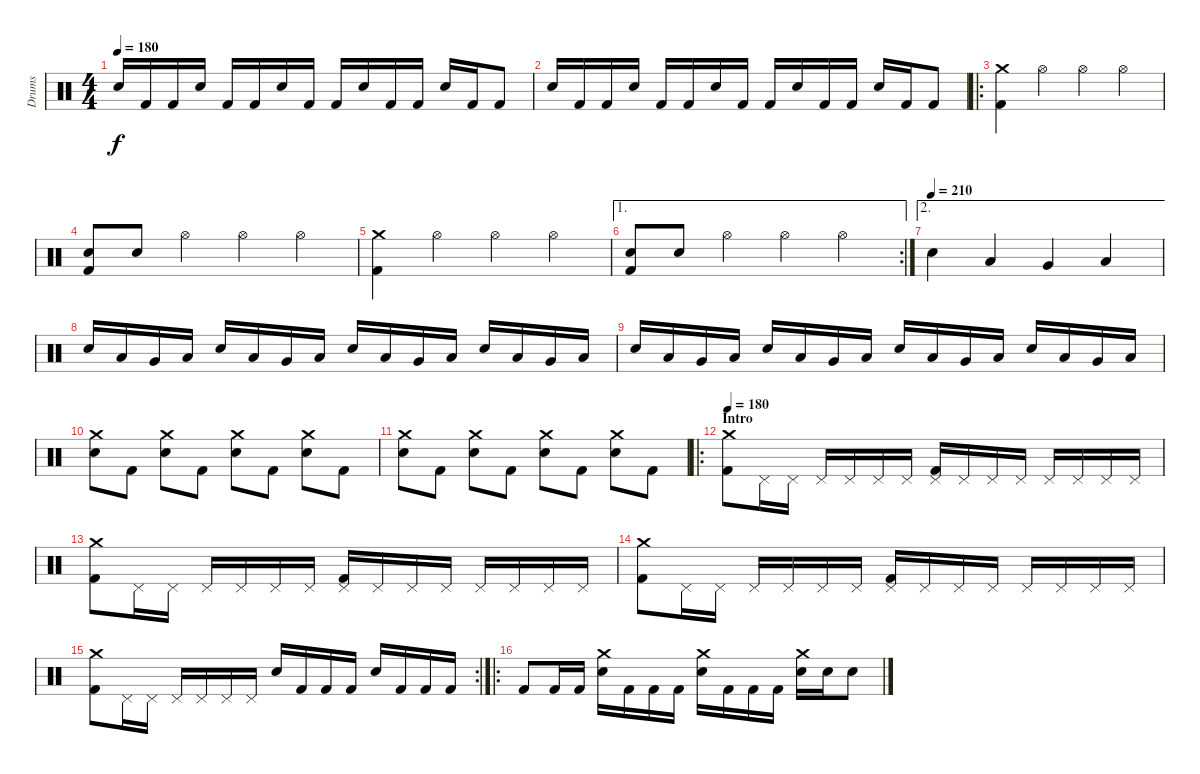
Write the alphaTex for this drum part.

\track ("Drums" "Drums") {instrument percussion}
\staff {score}
\articulation defaults
\ts (4 4)
\tempo 180
\clef neutral
\ks c "Electric Snare (hit)".16{dy f} "Kick (hit) 2".16 "Kick (hit) 2".16 "Electric Snare (hit)".16 "Kick (hit) 2".16 "Kick (hit) 2".16 "Electric Snare (hit)".16 "Kick (hit) 2".16 "Kick (hit) 2".16 "Electric Snare (hit)".16 "Kick (hit) 2".16 "Kick (hit) 2".16 "Electric Snare (hit)".16 "Kick (hit) 2".16 "Kick (hit) 2".8
|
"Electric Snare (hit)".16 "Kick (hit) 2".16 "Kick (hit) 2".16 "Electric Snare (hit)".16 "Kick (hit) 2".16 "Kick (hit) 2".16 "Electric Snare (hit)".16 "Kick (hit) 2".16 "Kick (hit) 2".16 "Electric Snare (hit)".16 "Kick (hit) 2".16 "Kick (hit) 2".16 "Electric Snare (hit)".16 "Kick (hit) 2".16 "Kick (hit) 2".8 |
\ro
("Crash medium (hit)" "Kick (hit) 2").4 "Hi-Hat (open)".4 "Hi-Hat (open)".4 "Hi-Hat (open)".4 |
("Kick (hit) 2" "Electric Snare (hit)").8 "Electric Snare (hit)".8 "Hi-Hat (open)".4 "Hi-Hat (open)".4 "Hi-Hat (open)".4 |
("Crash medium (hit)" "Kick (hit) 2").4 "Hi-Hat (open)".4 "Hi-Hat (open)".4 "Hi-Hat (open)".4 |
\ae 1
\rc 2
("Kick (hit) 2" "Electric Snare (hit)").8 "Electric Snare (hit)".8 "Hi-Hat (open)".4 "Hi-Hat (open)".4 "Hi-Hat (open)".4 |
\ae 2
\tempo (210)
"Electric Snare (hit)".4 "Low Tom (hit)".4 "Very Low Tom (hit)".4 "Low Floor Tom (hit)".4 |
"Electric Snare (hit)".16 "Low Tom (hit)".16 "Very Low Tom (hit)".16 "Low Floor Tom (hit)".16 "Electric Snare (hit)".16 "Low Tom (hit)".16 "Very Low Tom (hit)".16 "Low Floor Tom (hit)".16 "Electric Snare (hit)".16 "Low Tom (hit)".16 "Very Low Tom (hit)".16 "Low Floor Tom (hit)".16 "Electric Snare (hit)".16 "Low Tom (hit)".16 "Very Low Tom (hit)".16 "Low Floor Tom (hit)".16 |
"Electric Snare (hit)".16 "Low Tom (hit)".16 "Very Low Tom (hit)".16 "Low Floor Tom (hit)".16 "Electric Snare (hit)".16 "Low Tom (hit)".16 "Very Low Tom (hit)".16 "Low Floor Tom (hit)".16 "Electric Snare (hit)".16 "Low Tom (hit)".16 "Very Low Tom (hit)".16 "Low Floor Tom (hit)".16 "Electric Snare (hit)".16 "Low Tom (hit)".16 "Very Low Tom (hit)".16 "Low Floor Tom (hit)".16 |
("Electric Snare (hit)" "Crash medium (hit)").8 "Kick (hit) 2".8 ("Electric Snare (hit)" "Crash medium (hit)").8 "Kick (hit) 2".8 ("Electric Snare (hit)" "Crash medium (hit)").8 "Kick (hit) 2".8 ("Electric Snare (hit)" "Crash medium (hit)").8 "Kick (hit) 2".8 |
("Electric Snare (hit)" "Crash medium (hit)").8 "Kick (hit) 2".8 ("Electric Snare (hit)" "Crash medium (hit)").8 "Kick (hit) 2".8 ("Electric Snare (hit)" "Crash medium (hit)").8 "Kick (hit) 2".8 ("Electric Snare (hit)" "Crash medium (hit)").8 "Kick (hit) 2".8 |
\ro
\section ("" "Intro")
\tempo 180
("Kick (hit) 2" "Crash medium (hit)").8 "Pedal Hi-Hat (hit)".16 "Pedal Hi-Hat (hit)".16 "Pedal Hi-Hat (hit)".16 "Pedal Hi-Hat (hit)".16 "Pedal Hi-Hat (hit)".16 "Pedal Hi-Hat (hit)".16 ("Kick (hit) 2" "Pedal Hi-Hat (hit)").16 "Pedal Hi-Hat (hit)".16 "Pedal Hi-Hat (hit)".16 "Pedal Hi-Hat (hit)".16 "Pedal Hi-Hat (hit)".16 "Pedal Hi-Hat (hit)".16 "Pedal Hi-Hat (hit)".16 "Pedal Hi-Hat (hit)".16 |
("Kick (hit) 2" "Crash medium (hit)").8 "Pedal Hi-Hat (hit)".16 "Pedal Hi-Hat (hit)".16 "Pedal Hi-Hat (hit)".16 "Pedal Hi-Hat (hit)".16 "Pedal Hi-Hat (hit)".16 "Pedal Hi-Hat (hit)".16 ("Kick (hit) 2" "Pedal Hi-Hat (hit)").16 "Pedal Hi-Hat (hit)".16 "Pedal Hi-Hat (hit)".16 "Pedal Hi-Hat (hit)".16 "Pedal Hi-Hat (hit)".16 "Pedal Hi-Hat (hit)".16 "Pedal Hi-Hat (hit)".16 "Pedal Hi-Hat (hit)".16 |
("Kick (hit) 2" "Crash medium (hit)").8 "Pedal Hi-Hat (hit)".16 "Pedal Hi-Hat (hit)".16 "Pedal Hi-Hat (hit)".16 "Pedal Hi-Hat (hit)".16 "Pedal Hi-Hat (hit)".16 "Pedal Hi-Hat (hit)".16 ("Kick (hit) 2" "Pedal Hi-Hat (hit)").16 "Pedal Hi-Hat (hit)".16 "Pedal Hi-Hat (hit)".16 "Pedal Hi-Hat (hit)".16 "Pedal Hi-Hat (hit)".16 "Pedal Hi-Hat (hit)".16 "Pedal Hi-Hat (hit)".16 "Pedal Hi-Hat (hit)".16 |
\rc 2
("Kick (hit) 2" "Crash medium (hit)").8 "Pedal Hi-Hat (hit)".16 "Pedal Hi-Hat (hit)".16 "Pedal Hi-Hat (hit)".16 "Pedal Hi-Hat (hit)".16 "Pedal Hi-Hat (hit)".16 "Pedal Hi-Hat (hit)".16 "Electric Snare (hit)".16 "Kick (hit) 2".16 "Kick (hit) 2".16 "Kick (hit) 2".16 "Electric Snare (hit)".16 "Kick (hit) 2".16 "Kick (hit) 2".16 "Kick (hit) 2".16 |
\ro "Kick (hit) 2".8 "Kick (hit) 2".16 "Kick (hit) 2".16
("Crash medium (hit)" "Electric Snare (hit)").16 "Kick (hit) 2".16 "Kick (hit) 2".16 "Kick (hit) 2".16 ("Crash medium (hit)" "Electric Snare (hit)").16 "Kick (hit) 2".16 "Kick (hit) 2".16 "Kick (hit) 2".16 ("Crash medium (hit)" "Electric Snare (hit)").16 "Electric Snare (hit)".16 "Electric Snare (hit)".8
